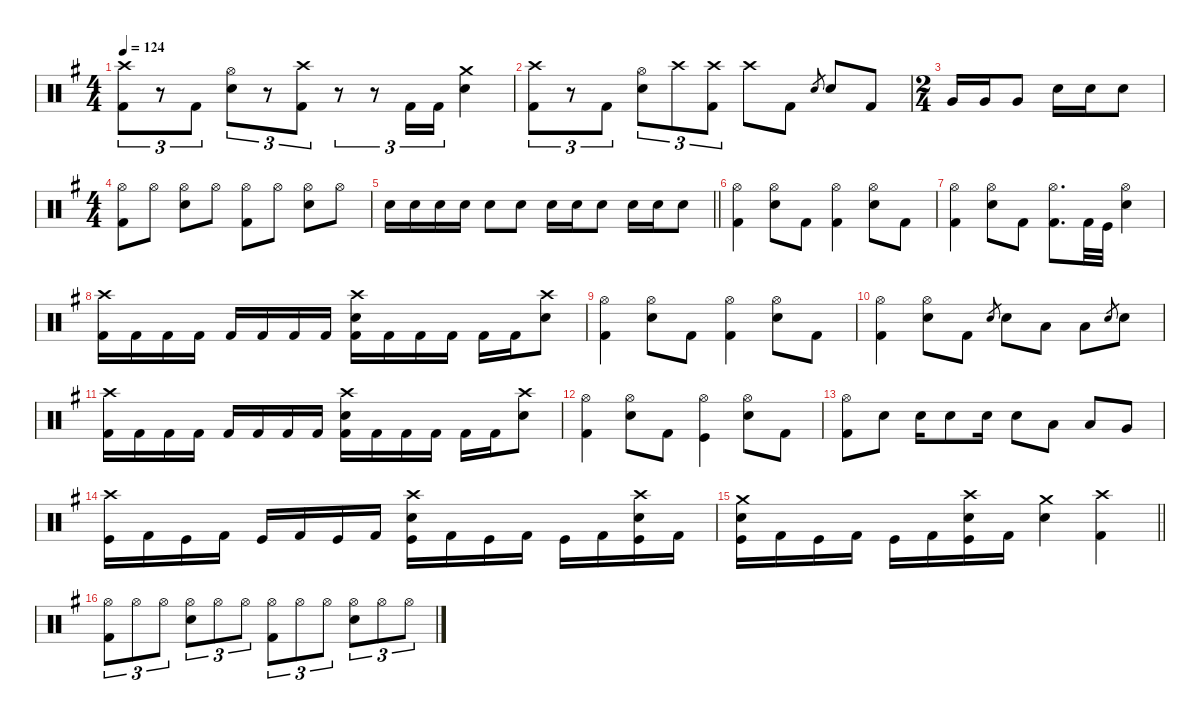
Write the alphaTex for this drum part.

\defaultSystemsLayout 4
\hideDynamics
\bracketExtendMode nobrackets
\singleTrackTrackNamePolicy hidden
\multiTrackTrackNamePolicy hidden
\otherSystemsTrackNameOrientation horizontal
\track ("Drums" "drm.") {defaultSystemsLayout 4 instrument percussion}
\staff {score}
\articulation defaults
\ts (4 4)
\tempo 124
\clef neutral
\ks eminor
("Crash high (hit)"{acc forcenatural} "Kick (hit) 2"{acc forcenatural}).8{tu (3 2) dy mf beam Down} r.8{tu (3 2) beam Down} "Kick (hit) 2"{acc forcenatural}.8{tu (3 2) dy ff beam Down} ("Hi-Hat (open)"{acc forcenatural} "Snare (hit) 2"{acc forcenatural}).8{tu (3 2) dy mf beam Down} r.8{tu (3 2) beam Down} ("Crash high (hit)"{acc forcenatural} "Kick (hit) 2"{acc forcenatural}).8{tu (3 2) dy mp beam Down} r.8{tu (3 2) beam Down} r.8{tu (3 2) beam Down} "Kick (hit) 2"{acc forcenatural}.16{tu (3 2) dy ff beam Up} "Kick (hit) 2"{acc forcenatural}.16{tu (3 2) beam Up} ("Crash medium (hit)"{acc forcenatural} "Snare (hit) 2"{acc forcenatural}).4{dy mf beam Down} |
("Crash high (hit)"{acc forcenatural} "Kick (hit) 2"{acc forcenatural}).8{tu (3 2) beam Down} r.8{tu (3 2) beam Down} "Kick (hit) 2"{acc forcenatural}.8{tu (3 2) dy ff beam Down} ("Hi-Hat (open)"{acc forcenatural} "Snare (hit) 2"{acc forcenatural}).8{tu (3 2) dy mf beam Down} "Crash high (hit)"{acc forcenatural}.8{tu (3 2) dy ppp beam Down} ("Crash high (hit)"{acc forcenatural} "Kick (hit) 2"{acc forcenatural}).8{tu (3 2) dy mf beam Down} "Crash high (hit)"{acc forcenatural}.8{dy ppp beam Down} "Kick (hit) 2"{acc forcenatural}.8{dy ff beam Down} "Electric Snare (hit)"{acc forcenatural}.8{gr dy mp beam Up} "Snare (hit) 2"{acc forcenatural}.8{dy ff beam Up} "Kick (hit) 2"{acc forcenatural}.8{dy fff beam Up} |
\ts (2 4)
\beaming (8 2 2)
"Very Low Tom (hit)"{acc forcenatural}.16{dy f beam Up} "Very Low Tom (hit)"{acc forcenatural}.16{beam Up} "Very Low Tom (hit)"{acc forcenatural}.8{beam Up} "Snare (hit) 2"{acc forcenatural}.16{dy ff beam Down} "Snare (hit) 2"{acc forcenatural}.16{dy mf beam Down} "Snare (hit) 2"{acc forcenatural}.8{dy ff beam Down} |
\ts (4 4)
\beaming (8 2 2 2 2)
("Hi-Hat (open)"{acc forcenatural} "Kick (hit) 2"{acc forcenatural}).8{dy mf beam Down} "Hi-Hat (open)"{acc forcenatural}.8{beam Down} ("Hi-Hat (open)"{acc forcenatural} "Snare (hit) 2"{acc forcenatural}).8{beam Down} "Hi-Hat (open)"{acc forcenatural}.8{beam Down} ("Hi-Hat (open)"{acc forcenatural} "Kick (hit) 2"{acc forcenatural}).8{beam Down} "Hi-Hat (open)"{acc forcenatural}.8{beam Down} ("Hi-Hat (open)"{acc forcenatural} "Snare (hit) 2"{acc forcenatural}).8{beam Down} "Hi-Hat (open)"{acc forcenatural}.8{beam Down} |
\barLineRight lightlight "Snare (hit) 2"{acc forcenatural}.16{beam Down} "Snare (hit) 2"{acc forcenatural}.16{beam Down} "Snare (hit) 2"{acc forcenatural}.16{dy ff beam Down} "Snare (hit) 2"{acc forcenatural}.16{dy mf beam Down} "Snare (hit) 2"{acc forcenatural}.8{dy ff beam Down} "Snare (hit) 2"{acc forcenatural}.8{beam Down} "Snare (hit) 2"{acc forcenatural}.16{beam Down} "Snare (hit) 2"{acc forcenatural}.16{dy f beam Down} "Snare (hit) 2"{acc forcenatural}.8{dy ff beam Down} "Snare (hit) 2"{acc forcenatural}.16{beam Down} "Snare (hit) 2"{acc forcenatural}.16{dy f beam Down} "Snare (hit) 2"{acc forcenatural}.8{dy ff beam Down}
|
("Hi-Hat (open)"{acc forcenatural} "Kick (hit) 2"{acc forcenatural}).4{dy f beam Down} ("Hi-Hat (open)"{acc forcenatural} "Snare (hit) 2"{acc forcenatural}).8{dy mf beam Down} "Kick (hit) 2"{acc forcenatural}.8{dy ff beam Down} ("Hi-Hat (open)"{acc forcenatural} "Kick (hit) 2"{acc forcenatural}).4{dy mf beam Down} ("Hi-Hat (open)"{acc forcenatural} "Snare (hit) 2"{acc forcenatural}).8{beam Down} "Kick (hit) 2"{acc forcenatural}.8{dy ff beam Down} |
("Hi-Hat (open)"{acc forcenatural} "Kick (hit) 2"{acc forcenatural}).4{dy mf beam Down} ("Hi-Hat (open)"{acc forcenatural} "Snare (hit) 2"{acc forcenatural}).8{beam Down} "Kick (hit) 2"{acc forcenatural}.8{dy ff beam Down} ("Hi-Hat (open)"{acc forcenatural} "Kick (hit) 2"{acc forcenatural}).8{d dy mf beam Down} "Kick (hit) 2"{acc forcenatural}.32{dy ff beam Down} "Kick (hit)"{acc forcenatural}.32{beam Down} ("Hi-Hat (open)"{acc forcenatural} "Snare (hit) 2"{acc forcenatural}).4{dy mf beam Down} |
("Crash high (hit)"{acc forcenatural} "Kick (hit) 2"{acc forcenatural}).16{beam Down} "Kick (hit) 2"{acc forcenatural}.16{dy ff beam Down} "Kick (hit) 2"{acc forcenatural}.16{beam Down} "Kick (hit) 2"{acc forcenatural}.16{beam Down} "Kick (hit) 2"{acc forcenatural}.16{beam Up} "Kick (hit) 2"{acc forcenatural}.16{beam Up} "Kick (hit) 2"{acc forcenatural}.16{beam Up} "Kick (hit) 2"{acc forcenatural}.16{beam Up} ("Crash high (hit)"{acc forcenatural} "Snare (hit) 2"{acc forcenatural} "Kick (hit) 2"{acc forcenatural}).16{dy mf beam Down} "Kick (hit) 2"{acc forcenatural}.16{dy ff beam Down} "Kick (hit) 2"{acc forcenatural}.16{beam Down} "Kick (hit) 2"{acc forcenatural}.16{beam Down} "Kick (hit) 2"{acc forcenatural}.16{beam Down} "Kick (hit) 2"{acc forcenatural}.16{beam Down} ("Crash high (hit)"{acc forcenatural} "Snare (hit) 2"{acc forcenatural}).8{dy mf beam Down} |
("Hi-Hat (open)"{acc forcenatural} "Kick (hit) 2"{acc forcenatural}).4{beam Down} ("Hi-Hat (open)"{acc forcenatural} "Snare (hit) 2"{acc forcenatural}).8{beam Down} "Kick (hit) 2"{acc forcenatural}.8{dy ff beam Down} ("Hi-Hat (open)"{acc forcenatural} "Kick (hit) 2"{acc forcenatural}).4{dy mf beam Down} ("Hi-Hat (open)"{acc forcenatural} "Snare (hit) 2"{acc forcenatural}).8{beam Down} "Kick (hit) 2"{acc forcenatural}.8{dy ff beam Down} |
("Hi-Hat (open)"{acc forcenatural} "Kick (hit) 2"{acc forcenatural}).4{dy mf beam Down} ("Hi-Hat (open)"{acc forcenatural} "Snare (hit) 2"{acc forcenatural}).8{beam Down} "Kick (hit) 2"{acc forcenatural}.8{dy ff beam Down} "Electric Snare (hit)"{acc forcenatural}.8{gr dy mp beam Up} "Snare (hit) 2"{acc forcenatural}.8{dy ff beam Down} "Low Tom (hit)"{acc forcenatural}.8{dy f beam Down} "Low Tom (hit)"{acc forcenatural}.8{beam Down} "Electric Snare (hit)"{acc forcenatural}.8{gr dy mp beam Up} "Snare (hit) 2"{acc forcenatural}.8{dy ff beam Down} |
("Crash high (hit)"{acc forcenatural} "Kick (hit) 2"{acc forcenatural}).16{dy mf beam Down} "Kick (hit) 2"{acc forcenatural}.16{dy ff beam Down} "Kick (hit) 2"{acc forcenatural}.16{beam Down} "Kick (hit) 2"{acc forcenatural}.16{beam Down} "Kick (hit) 2"{acc forcenatural}.16{beam Up} "Kick (hit) 2"{acc forcenatural}.16{beam Up} "Kick (hit) 2"{acc forcenatural}.16{beam Up} "Kick (hit) 2"{acc forcenatural}.16{beam Up} ("Crash high (hit)"{acc forcenatural} "Snare (hit) 2"{acc forcenatural} "Kick (hit) 2"{acc forcenatural}).16{dy mf beam Down} "Kick (hit) 2"{acc forcenatural}.16{dy ff beam Down} "Kick (hit) 2"{acc forcenatural}.16{beam Down} "Kick (hit) 2"{acc forcenatural}.16{beam Down} "Kick (hit) 2"{acc forcenatural}.16{beam Down} "Kick (hit) 2"{acc forcenatural}.16{beam Down} ("Crash high (hit)"{acc forcenatural} "Snare (hit) 2"{acc forcenatural}).8{dy mf beam Down} |
("Hi-Hat (open)"{acc forcenatural} "Kick (hit) 2"{acc forcenatural}).4{beam Down} ("Hi-Hat (open)"{acc forcenatural} "Snare (hit) 2"{acc forcenatural}).8{beam Down} "Kick (hit) 2"{acc forcenatural}.8{dy ff beam Down} ("Hi-Hat (open)"{acc forcenatural} "Kick (hit)"{acc forcenatural}).4{dy mf beam Down} ("Hi-Hat (open)"{acc forcenatural} "Snare (hit) 2"{acc forcenatural}).8{beam Down} "Kick (hit) 2"{acc forcenatural}.8{dy ff beam Down} |
("Hi-Hat (open)"{acc forcenatural} "Kick (hit) 2"{acc forcenatural}).8{dy mf beam Down} "Snare (hit) 2"{acc forcenatural}.8{dy ff beam Down} "Snare (hit) 2"{acc forcenatural}.16{dy mf beam Down} "Snare (hit) 2"{acc forcenatural}.8{dy ff beam Down} "Snare (hit) 2"{acc forcenatural}.16{dy mf beam Down} "Snare (hit) 2"{acc forcenatural}.8{dy ff beam Down} "Low Tom (hit)"{acc forcenatural}.8{dy fff beam Down} "Low Tom (hit)"{acc forcenatural}.8{beam Up} "Very Low Tom (hit)"{acc forcenatural}.8{beam Up} |
("Crash high (hit)"{acc forcenatural} "Kick (hit)"{acc forcenatural}).16{dy mf beam Down} "Kick (hit) 2"{acc forcenatural}.16{dy ff beam Down} "Kick (hit)"{acc forcenatural}.16{beam Down} "Kick (hit) 2"{acc forcenatural}.16{beam Down} "Kick (hit)"{acc forcenatural}.16{beam Up} "Kick (hit) 2"{acc forcenatural}.16{beam Up} "Kick (hit)"{acc forcenatural}.16{beam Up} "Kick (hit) 2"{acc forcenatural}.16{beam Up} ("Crash high (hit)"{acc forcenatural} "Snare (hit) 2"{acc forcenatural} "Kick (hit)"{acc forcenatural}).16{dy mf beam Down} "Kick (hit) 2"{acc forcenatural}.16{dy ff beam Down} "Kick (hit)"{acc forcenatural}.16{beam Down} "Kick (hit) 2"{acc forcenatural}.16{beam Down} "Kick (hit)"{acc forcenatural}.16{beam Down} "Kick (hit) 2"{acc forcenatural}.16{beam Down} ("Crash high (hit)"{acc forcenatural} "Snare (hit) 2"{acc forcenatural} "Kick (hit)"{acc forcenatural}).16{dy mf beam Down} "Kick (hit) 2"{acc forcenatural}.16{dy ff beam Down} |
\barLineRight lightlight
("Crash medium (hit)"{acc forcenatural} "Snare (hit) 2"{acc forcenatural} "Kick (hit)"{acc forcenatural}).16{dy mf beam Down} "Kick (hit) 2"{acc forcenatural}.16{dy ff beam Down} "Kick (hit)"{acc forcenatural}.16{beam Down} "Kick (hit) 2"{acc forcenatural}.16{beam Down} "Kick (hit)"{acc forcenatural}.16{beam Down} "Kick (hit) 2"{acc forcenatural}.16{beam Down} ("Crash high (hit)"{acc forcenatural} "Snare (hit) 2"{acc forcenatural} "Kick (hit)"{acc forcenatural}).16{dy mf beam Down} "Kick (hit) 2"{acc forcenatural}.16{dy ff beam Down} ("Crash medium (hit)"{acc forcenatural} "Snare (hit) 2"{acc forcenatural}).4{dy f beam Down} ("Crash high (hit)"{acc forcenatural} "Kick (hit) 2"{acc forcenatural}).4{dy ff beam Down} |
("Hi-Hat (open)"{acc forcenatural} "Kick (hit) 2"{acc forcenatural}).8{tu (3 2) dy f beam Down} "Hi-Hat (open)"{acc forcenatural}.8{tu (3 2) dy mf beam Down} "Hi-Hat (open)"{acc forcenatural}.8{tu (3 2) beam Down} ("Hi-Hat (open)"{acc forcenatural} "Snare (hit) 2"{acc forcenatural}).8{tu (3 2) beam Down} "Hi-Hat (open)"{acc forcenatural}.8{tu (3 2) beam Down} "Hi-Hat (open)"{acc forcenatural}.8{tu (3 2) beam Down} ("Hi-Hat (open)"{acc forcenatural} "Kick (hit) 2"{acc forcenatural}).8{tu (3 2) beam Down} "Hi-Hat (open)"{acc forcenatural}.8{tu (3 2) beam Down} "Hi-Hat (open)"{acc forcenatural}.8{tu (3 2) beam Down} ("Hi-Hat (open)"{acc forcenatural} "Snare (hit) 2"{acc forcenatural}).8{tu (3 2) beam Down} "Hi-Hat (open)"{acc forcenatural}.8{tu (3 2) beam Down} "Hi-Hat (open)"{acc forcenatural}.8{tu (3 2) beam Down}
